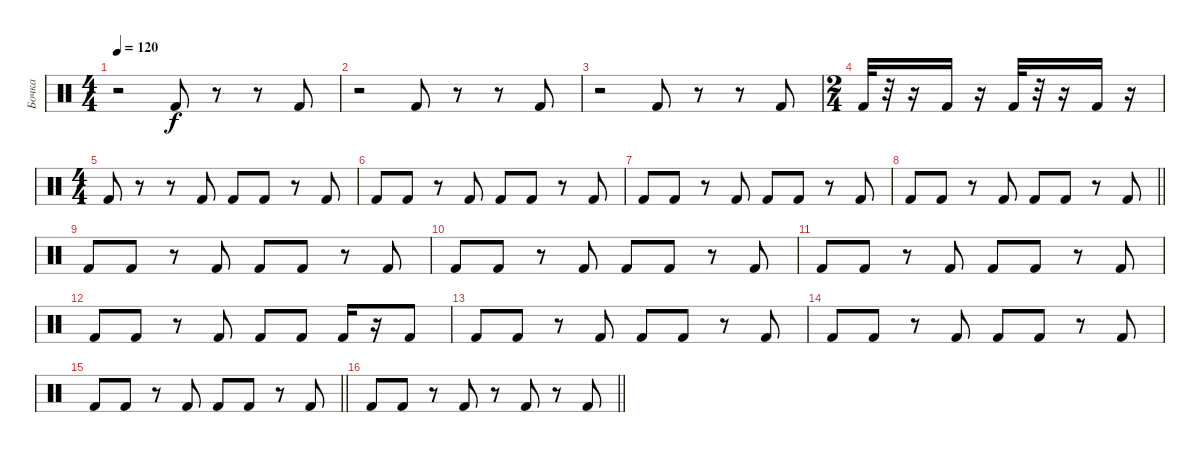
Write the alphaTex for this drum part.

\track ("Бочка" "Бочка") {instrument percussion}
\staff {score}
\articulation defaults
\ts (4 4)
\tempo 120
\clef neutral
\ks c
r.2{dy f} "Kick (hit) 2".8 r.8 r.8 "Kick (hit) 2".8 |
r.2 "Kick (hit) 2".8 r.8 r.8 "Kick (hit) 2".8 |
r.2 "Kick (hit) 2".8 r.8 r.8 "Kick (hit) 2".8 |
\ts (2 4)
"Kick (hit) 2".32 r.32 r.16 "Kick (hit) 2".16 r.16 "Kick (hit) 2".32 r.32 r.16 "Kick (hit) 2".16 r.16 |
\ts (4 4)
"Kick (hit) 2".8 r.8 r.8 "Kick (hit) 2".8 "Kick (hit) 2".8 "Kick (hit) 2".8 r.8 "Kick (hit) 2".8 |
"Kick (hit) 2".8 "Kick (hit) 2".8 r.8 "Kick (hit) 2".8 "Kick (hit) 2".8 "Kick (hit) 2".8 r.8 "Kick (hit) 2".8 |
"Kick (hit) 2".8 "Kick (hit) 2".8 r.8 "Kick (hit) 2".8 "Kick (hit) 2".8 "Kick (hit) 2".8 r.8 "Kick (hit) 2".8 |
\barLineRight lightlight "Kick (hit) 2".8 "Kick (hit) 2".8
r.8 "Kick (hit) 2".8 "Kick (hit) 2".8 "Kick (hit) 2".8 r.8 "Kick (hit) 2".8 |
"Kick (hit) 2".8 "Kick (hit) 2".8 r.8 "Kick (hit) 2".8 "Kick (hit) 2".8 "Kick (hit) 2".8 r.8 "Kick (hit) 2".8 |
"Kick (hit) 2".8 "Kick (hit) 2".8 r.8 "Kick (hit) 2".8 "Kick (hit) 2".8 "Kick (hit) 2".8 r.8 "Kick (hit) 2".8 |
"Kick (hit) 2".8 "Kick (hit) 2".8 r.8 "Kick (hit) 2".8 "Kick (hit) 2".8 "Kick (hit) 2".8 r.8 "Kick (hit) 2".8 |
"Kick (hit) 2".8 "Kick (hit) 2".8 r.8 "Kick (hit) 2".8 "Kick (hit) 2".8 "Kick (hit) 2".8 "Kick (hit) 2".16 r.16 "Kick (hit) 2".8 |
"Kick (hit) 2".8 "Kick (hit) 2".8 r.8 "Kick (hit) 2".8 "Kick (hit) 2".8 "Kick (hit) 2".8 r.8 "Kick (hit) 2".8 |
"Kick (hit) 2".8 "Kick (hit) 2".8 r.8 "Kick (hit) 2".8 "Kick (hit) 2".8 "Kick (hit) 2".8 r.8 "Kick (hit) 2".8 |
\barLineRight lightlight "Kick (hit) 2".8 "Kick (hit) 2".8
r.8 "Kick (hit) 2".8 "Kick (hit) 2".8 "Kick (hit) 2".8 r.8 "Kick (hit) 2".8 |
\barLineRight lightlight "Kick (hit) 2".8 "Kick (hit) 2".8
r.8 "Kick (hit) 2".8 r.8 "Kick (hit) 2".8 r.8 "Kick (hit) 2".8
